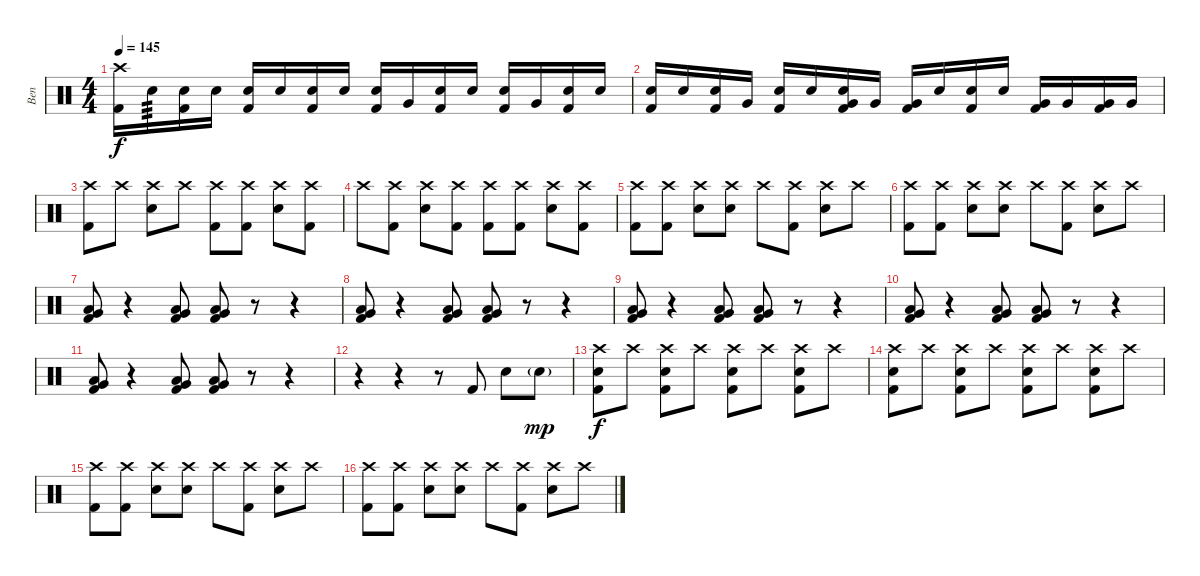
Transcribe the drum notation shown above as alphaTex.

\track ("Ben" "Ben") {instrument percussion}
\staff {score}
\articulation defaults
\ts (4 4)
\tempo 145
\clef neutral
\ks c
("Crash high (hit)" "Kick (hit) 2").16{dy f} "Electric Snare (hit)".16{tp 3} ("Electric Snare (hit)" "Kick (hit) 2").16 "Electric Snare (hit)".16 ("Electric Snare (hit)" "Kick (hit) 2").16 "Electric Snare (hit)".16 ("Electric Snare (hit)" "Kick (hit) 2").16 "Electric Snare (hit)".16 ("Electric Snare (hit)" "Kick (hit) 2").16 "Very Low Tom (hit)".16 ("Electric Snare (hit)" "Kick (hit) 2").16 "Electric Snare (hit)".16 ("Electric Snare (hit)" "Kick (hit) 2").16 "Very Low Tom (hit)".16 ("Electric Snare (hit)" "Kick (hit) 2").16 "Electric Snare (hit)".16 |
("Electric Snare (hit)" "Kick (hit) 2").16 "Electric Snare (hit)".16 ("Electric Snare (hit)" "Kick (hit) 2").16 "Very Low Tom (hit)".16 ("Electric Snare (hit)" "Kick (hit) 2").16 "Electric Snare (hit)".16 ("Very Low Tom (hit)" "Electric Snare (hit)" "Kick (hit) 2").16 "Very Low Tom (hit)".16 ("Very Low Tom (hit)" "Kick (hit) 2").16 "Electric Snare (hit)".16 ("Electric Snare (hit)" "Kick (hit) 2").16 "Electric Snare (hit)".16 ("Very Low Tom (hit)" "Kick (hit) 2").16 "Very Low Tom (hit)".16 ("Very Low Tom (hit)" "Kick (hit) 2").16 "Very Low Tom (hit)".16 |
("Crash high (hit)" "Kick (hit) 2").8 "Crash high (hit)".8 ("Crash high (hit)" "Electric Snare (hit)").8 "Crash high (hit)".8 ("Crash high (hit)" "Kick (hit) 2").8 ("Crash high (hit)" "Kick (hit) 2").8 ("Crash high (hit)" "Electric Snare (hit)").8 ("Crash high (hit)" "Kick (hit) 2").8 |
"Crash high (hit)".8 ("Crash high (hit)" "Kick (hit) 2").8 ("Crash high (hit)" "Electric Snare (hit)").8 ("Crash high (hit)" "Kick (hit) 2").8 ("Crash high (hit)" "Kick (hit) 2").8 ("Crash high (hit)" "Kick (hit) 2").8 ("Crash high (hit)" "Electric Snare (hit)").8 ("Crash high (hit)" "Kick (hit) 2").8 |
("Crash high (hit)" "Kick (hit) 2").8 ("Crash high (hit)" "Kick (hit) 2").8 ("Crash high (hit)" "Electric Snare (hit)").8 ("Crash high (hit)" "Electric Snare (hit)").8 "Crash high (hit)".8 ("Crash high (hit)" "Kick (hit) 2").8 ("Crash high (hit)" "Electric Snare (hit)").8 "Crash high (hit)".8 |
("Crash high (hit)" "Kick (hit) 2").8 ("Crash high (hit)" "Kick (hit) 2").8 ("Crash high (hit)" "Electric Snare (hit)").8 ("Crash high (hit)" "Electric Snare (hit)").8 "Crash high (hit)".8 ("Crash high (hit)" "Kick (hit) 2").8 ("Crash high (hit)" "Electric Snare (hit)").8 "Crash high (hit)".8 |
("Very Low Tom (hit)" "Low Floor Tom (hit)" "Kick (hit) 2").8 r.4 ("Very Low Tom (hit)" "Low Floor Tom (hit)" "Kick (hit) 2").8 ("Very Low Tom (hit)" "Low Floor Tom (hit)" "Kick (hit) 2").8 r.8 r.4 |
("Very Low Tom (hit)" "Low Floor Tom (hit)" "Kick (hit) 2").8 r.4 ("Very Low Tom (hit)" "Low Floor Tom (hit)" "Kick (hit) 2").8 ("Very Low Tom (hit)" "Low Floor Tom (hit)" "Kick (hit) 2").8 r.8 r.4 |
("Very Low Tom (hit)" "Low Floor Tom (hit)" "Kick (hit) 2").8 r.4 ("Very Low Tom (hit)" "Low Floor Tom (hit)" "Kick (hit) 2").8 ("Very Low Tom (hit)" "Low Floor Tom (hit)" "Kick (hit) 2").8 r.8 r.4 |
("Very Low Tom (hit)" "Low Floor Tom (hit)" "Kick (hit) 2").8 r.4 ("Very Low Tom (hit)" "Low Floor Tom (hit)" "Kick (hit) 2").8 ("Very Low Tom (hit)" "Low Floor Tom (hit)" "Kick (hit) 2").8 r.8 r.4 |
("Very Low Tom (hit)" "Low Floor Tom (hit)" "Kick (hit) 2").8 r.4 ("Very Low Tom (hit)" "Low Floor Tom (hit)" "Kick (hit) 2").8 ("Very Low Tom (hit)" "Low Floor Tom (hit)" "Kick (hit) 2").8 r.8 r.4 |
r.4 r.4 r.8 "Kick (hit) 2".8 "Electric Snare (hit)".8 "Electric Snare (hit)"{g}.8{dy mp} |
("Crash high (hit)" "Electric Snare (hit)" "Kick (hit) 2").8{dy f} "Crash high (hit)".8 ("Crash high (hit)" "Electric Snare (hit)" "Kick (hit) 2").8 "Crash high (hit)".8 ("Crash high (hit)" "Electric Snare (hit)" "Kick (hit) 2").8 "Crash high (hit)".8 ("Crash high (hit)" "Electric Snare (hit)" "Kick (hit) 2").8 "Crash high (hit)".8 |
("Crash high (hit)" "Electric Snare (hit)" "Kick (hit) 2").8 "Crash high (hit)".8 ("Crash high (hit)" "Electric Snare (hit)" "Kick (hit) 2").8 "Crash high (hit)".8 ("Crash high (hit)" "Electric Snare (hit)" "Kick (hit) 2").8 "Crash high (hit)".8 ("Crash high (hit)" "Electric Snare (hit)" "Kick (hit) 2").8 "Crash high (hit)".8 |
("Crash high (hit)" "Kick (hit) 2").8 ("Crash high (hit)" "Kick (hit) 2").8 ("Crash high (hit)" "Electric Snare (hit)").8 ("Crash high (hit)" "Electric Snare (hit)").8 "Crash high (hit)".8 ("Crash high (hit)" "Kick (hit) 2").8 ("Crash high (hit)" "Electric Snare (hit)").8 "Crash high (hit)".8 |
("Crash high (hit)" "Kick (hit) 2").8 ("Crash high (hit)" "Kick (hit) 2").8 ("Crash high (hit)" "Electric Snare (hit)").8 ("Crash high (hit)" "Electric Snare (hit)").8 "Crash high (hit)".8 ("Crash high (hit)" "Kick (hit) 2").8 ("Crash high (hit)" "Electric Snare (hit)").8 "Crash high (hit)".8
